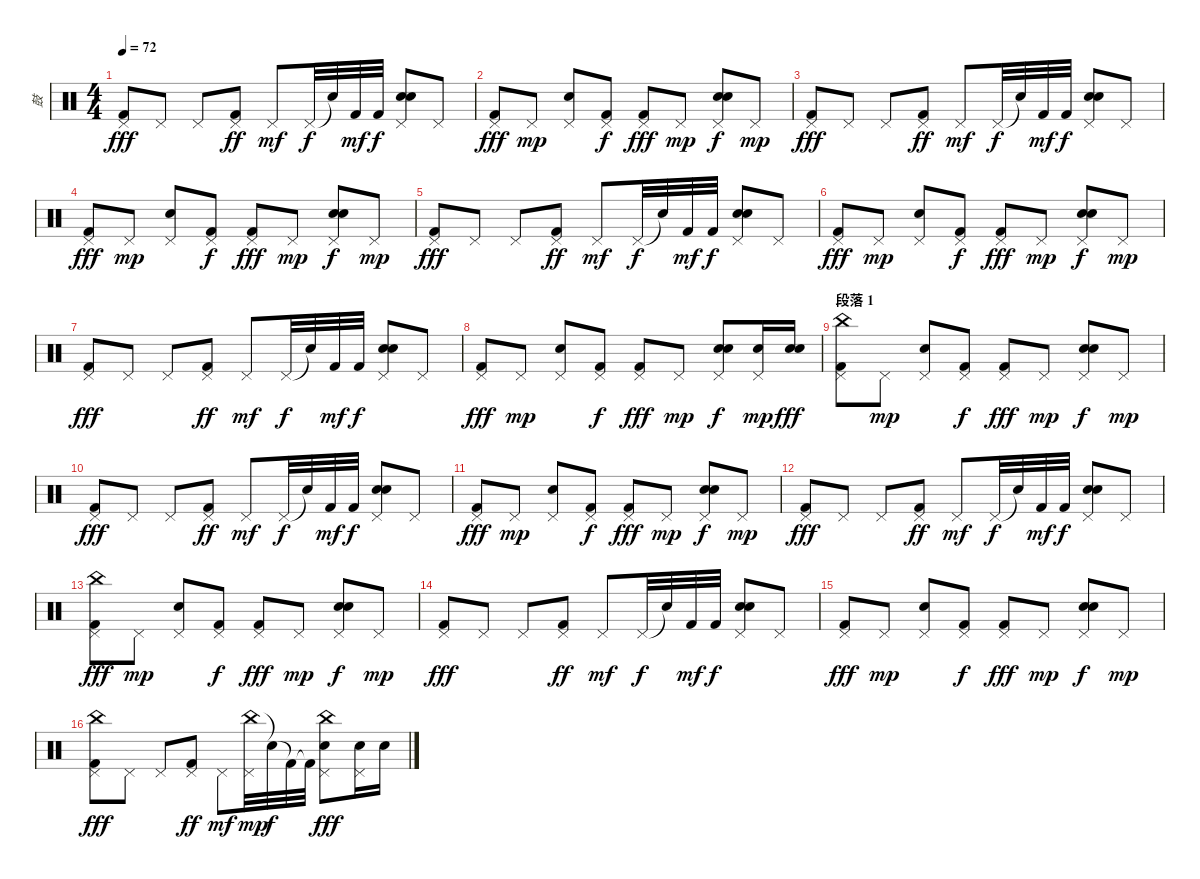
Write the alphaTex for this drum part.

\track ("鼓" "鼓") {instrument percussion}
\staff {score}
\articulation defaults
\ts (4 4)
\tempo 72
\clef neutral
\ks c
("Kick (hit) 2" "Pedal Hi-Hat (hit)").8{dy fff} "Pedal Hi-Hat (hit)".8 "Pedal Hi-Hat (hit)".8 ("Kick (hit) 2" "Pedal Hi-Hat (hit)").8{dy ff} "Pedal Hi-Hat (hit)".8{dy mf} "Pedal Hi-Hat (hit)".32{dy f} "Snare (hit)"{t}.32 "Kick (hit) 2".32{dy mf} "Kick (hit) 2".32{dy f} ("Hand Clap (hit)" "Electric Snare (hit)" "Pedal Hi-Hat (hit)").8 "Pedal Hi-Hat (hit)".8 |
("Kick (hit) 2" "Pedal Hi-Hat (hit)").8{dy fff} "Pedal Hi-Hat (hit)".8{dy mp} ("Electric Snare (hit)" "Pedal Hi-Hat (hit)").8 ("Kick (hit) 2" "Pedal Hi-Hat (hit)").8{dy f} ("Kick (hit) 2" "Pedal Hi-Hat (hit)").8{dy fff} "Pedal Hi-Hat (hit)".8{dy mp} ("Hand Clap (hit)" "Electric Snare (hit)" "Pedal Hi-Hat (hit)").8{dy f} "Pedal Hi-Hat (hit)".8{dy mp} |
("Kick (hit) 2" "Pedal Hi-Hat (hit)").8{dy fff} "Pedal Hi-Hat (hit)".8 "Pedal Hi-Hat (hit)".8 ("Kick (hit) 2" "Pedal Hi-Hat (hit)").8{dy ff} "Pedal Hi-Hat (hit)".8{dy mf} "Pedal Hi-Hat (hit)".32{dy f} "Snare (hit)"{t}.32 "Kick (hit) 2".32{dy mf} "Kick (hit) 2".32{dy f} ("Hand Clap (hit)" "Electric Snare (hit)" "Pedal Hi-Hat (hit)").8 "Pedal Hi-Hat (hit)".8 |
("Kick (hit) 2" "Pedal Hi-Hat (hit)").8{dy fff} "Pedal Hi-Hat (hit)".8{dy mp} ("Electric Snare (hit)" "Pedal Hi-Hat (hit)").8 ("Kick (hit) 2" "Pedal Hi-Hat (hit)").8{dy f} ("Kick (hit) 2" "Pedal Hi-Hat (hit)").8{dy fff} "Pedal Hi-Hat (hit)".8{dy mp} ("Hand Clap (hit)" "Electric Snare (hit)" "Pedal Hi-Hat (hit)").8{dy f} "Pedal Hi-Hat (hit)".8{dy mp} |
("Kick (hit) 2" "Pedal Hi-Hat (hit)").8{dy fff} "Pedal Hi-Hat (hit)".8 "Pedal Hi-Hat (hit)".8 ("Kick (hit) 2" "Pedal Hi-Hat (hit)").8{dy ff} "Pedal Hi-Hat (hit)".8{dy mf} "Pedal Hi-Hat (hit)".32{dy f} "Snare (hit)"{t}.32 "Kick (hit) 2".32{dy mf} "Kick (hit) 2".32{dy f} ("Hand Clap (hit)" "Electric Snare (hit)" "Pedal Hi-Hat (hit)").8 "Pedal Hi-Hat (hit)".8 |
("Kick (hit) 2" "Pedal Hi-Hat (hit)").8{dy fff} "Pedal Hi-Hat (hit)".8{dy mp} ("Electric Snare (hit)" "Pedal Hi-Hat (hit)").8 ("Kick (hit) 2" "Pedal Hi-Hat (hit)").8{dy f} ("Kick (hit) 2" "Pedal Hi-Hat (hit)").8{dy fff} "Pedal Hi-Hat (hit)".8{dy mp} ("Hand Clap (hit)" "Electric Snare (hit)" "Pedal Hi-Hat (hit)").8{dy f} "Pedal Hi-Hat (hit)".8{dy mp} |
("Kick (hit) 2" "Pedal Hi-Hat (hit)").8{dy fff} "Pedal Hi-Hat (hit)".8 "Pedal Hi-Hat (hit)".8 ("Kick (hit) 2" "Pedal Hi-Hat (hit)").8{dy ff} "Pedal Hi-Hat (hit)".8{dy mf} "Pedal Hi-Hat (hit)".32{dy f} "Snare (hit)"{t}.32 "Kick (hit) 2".32{dy mf} "Kick (hit) 2".32{dy f} ("Hand Clap (hit)" "Electric Snare (hit)" "Pedal Hi-Hat (hit)").8 "Pedal Hi-Hat (hit)".8 |
("Kick (hit) 2" "Pedal Hi-Hat (hit)").8{dy fff} "Pedal Hi-Hat (hit)".8{dy mp} ("Electric Snare (hit)" "Pedal Hi-Hat (hit)").8 ("Kick (hit) 2" "Pedal Hi-Hat (hit)").8{dy f} ("Kick (hit) 2" "Pedal Hi-Hat (hit)").8{dy fff} "Pedal Hi-Hat (hit)".8{dy mp} ("Hand Clap (hit)" "Electric Snare (hit)" "Pedal Hi-Hat (hit)").8{dy f} ("Electric Snare (hit)" "Pedal Hi-Hat (hit)").16{dy mp} ("Hand Clap (hit)" "Electric Snare (hit)").16{dy fff} |
\section ("" "段落 1")
("China (hit)" "Kick (hit) 2" "Pedal Hi-Hat (hit)").8 "Pedal Hi-Hat (hit)".8{dy mp} ("Electric Snare (hit)" "Pedal Hi-Hat (hit)").8 ("Kick (hit) 2" "Pedal Hi-Hat (hit)").8{dy f} ("Kick (hit) 2" "Pedal Hi-Hat (hit)").8{dy fff} "Pedal Hi-Hat (hit)".8{dy mp} ("Hand Clap (hit)" "Electric Snare (hit)" "Pedal Hi-Hat (hit)").8{dy f} "Pedal Hi-Hat (hit)".8{dy mp} |
("Kick (hit) 2" "Pedal Hi-Hat (hit)").8{dy fff} "Pedal Hi-Hat (hit)".8 "Pedal Hi-Hat (hit)".8 ("Kick (hit) 2" "Pedal Hi-Hat (hit)").8{dy ff} "Pedal Hi-Hat (hit)".8{dy mf} "Pedal Hi-Hat (hit)".32{dy f} "Snare (hit)"{t}.32 "Kick (hit) 2".32{dy mf} "Kick (hit) 2".32{dy f} ("Hand Clap (hit)" "Electric Snare (hit)" "Pedal Hi-Hat (hit)").8 "Pedal Hi-Hat (hit)".8 |
("Kick (hit) 2" "Pedal Hi-Hat (hit)").8{dy fff} "Pedal Hi-Hat (hit)".8{dy mp} ("Electric Snare (hit)" "Pedal Hi-Hat (hit)").8 ("Kick (hit) 2" "Pedal Hi-Hat (hit)").8{dy f} ("Kick (hit) 2" "Pedal Hi-Hat (hit)").8{dy fff} "Pedal Hi-Hat (hit)".8{dy mp} ("Hand Clap (hit)" "Electric Snare (hit)" "Pedal Hi-Hat (hit)").8{dy f} "Pedal Hi-Hat (hit)".8{dy mp} |
("Kick (hit) 2" "Pedal Hi-Hat (hit)").8{dy fff} "Pedal Hi-Hat (hit)".8 "Pedal Hi-Hat (hit)".8 ("Kick (hit) 2" "Pedal Hi-Hat (hit)").8{dy ff} "Pedal Hi-Hat (hit)".8{dy mf} "Pedal Hi-Hat (hit)".32{dy f} "Snare (hit)"{t}.32 "Kick (hit) 2".32{dy mf} "Kick (hit) 2".32{dy f} ("Hand Clap (hit)" "Electric Snare (hit)" "Pedal Hi-Hat (hit)").8 "Pedal Hi-Hat (hit)".8 |
("China (hit)" "Kick (hit) 2" "Pedal Hi-Hat (hit)").8{dy fff} "Pedal Hi-Hat (hit)".8{dy mp} ("Electric Snare (hit)" "Pedal Hi-Hat (hit)").8 ("Kick (hit) 2" "Pedal Hi-Hat (hit)").8{dy f} ("Kick (hit) 2" "Pedal Hi-Hat (hit)").8{dy fff} "Pedal Hi-Hat (hit)".8{dy mp} ("Hand Clap (hit)" "Electric Snare (hit)" "Pedal Hi-Hat (hit)").8{dy f} "Pedal Hi-Hat (hit)".8{dy mp} |
("Kick (hit) 2" "Pedal Hi-Hat (hit)").8{dy fff} "Pedal Hi-Hat (hit)".8 "Pedal Hi-Hat (hit)".8 ("Kick (hit) 2" "Pedal Hi-Hat (hit)").8{dy ff} "Pedal Hi-Hat (hit)".8{dy mf} "Pedal Hi-Hat (hit)".32{dy f} "Snare (hit)"{t}.32 "Kick (hit) 2".32{dy mf} "Kick (hit) 2".32{dy f} ("Hand Clap (hit)" "Electric Snare (hit)" "Pedal Hi-Hat (hit)").8 "Pedal Hi-Hat (hit)".8 |
("Kick (hit) 2" "Pedal Hi-Hat (hit)").8{dy fff} "Pedal Hi-Hat (hit)".8{dy mp} ("Electric Snare (hit)" "Pedal Hi-Hat (hit)").8 ("Kick (hit) 2" "Pedal Hi-Hat (hit)").8{dy f} ("Kick (hit) 2" "Pedal Hi-Hat (hit)").8{dy fff} "Pedal Hi-Hat (hit)".8{dy mp} ("Hand Clap (hit)" "Electric Snare (hit)" "Pedal Hi-Hat (hit)").8{dy f} "Pedal Hi-Hat (hit)".8{dy mp} |
("China (hit)" "Kick (hit) 2" "Pedal Hi-Hat (hit)").8{dy fff} "Pedal Hi-Hat (hit)".8 "Pedal Hi-Hat (hit)".8 ("Kick (hit) 2" "Pedal Hi-Hat (hit)").8{dy ff} "Pedal Hi-Hat (hit)".8{dy mf} ("China (hit)" "Pedal Hi-Hat (hit)").32{dy mp} "Snare (hit)"{t}.32{dy f} "Kick (hit) 2"{t}.32 "Kick (hit) 2"{t}.32 ("China (hit)" "Electric Snare (hit)" "Pedal Hi-Hat (hit)").8{dy fff} ("Electric Snare (hit)" "Pedal Hi-Hat (hit)").16 "Electric Snare (hit)".16
